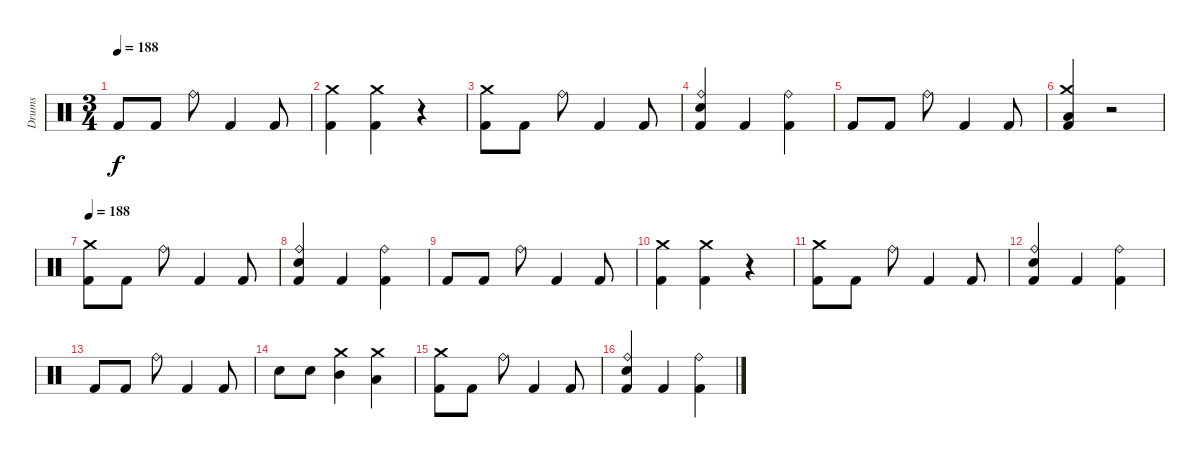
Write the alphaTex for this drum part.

\track ("Drums" "Drums") {instrument percussion}
\staff {score}
\articulation defaults
\ts (3 4)
\tempo 188
\clef neutral
\ks c "Kick (hit) 2".8{dy f} "Kick (hit) 2".8 "Ride (bell)".8 "Kick (hit) 2".4 "Kick (hit) 2".8
|
("Crash medium (hit)" "Kick (hit) 2").4 ("Crash medium (hit)" "Kick (hit) 2").4 r.4 |
("Crash medium (hit)" "Kick (hit) 2").8 "Kick (hit) 2".8 "Ride (bell)".8 "Kick (hit) 2".4 "Kick (hit) 2".8 |
("Electric Snare (hit)" "Ride (bell)" "Kick (hit) 2").4 "Kick (hit) 2".4 ("Ride (bell)" "Kick (hit) 2").4 |
"Kick (hit) 2".8 "Kick (hit) 2".8 "Ride (bell)".8 "Kick (hit) 2".4 "Kick (hit) 2".8 |
("Crash medium (hit)" "Low Tom (hit)" "Kick (hit) 2").4 r.2 |
\tempo 188
("Crash medium (hit)" "Kick (hit) 2").8 "Kick (hit) 2".8 "Ride (bell)".8 "Kick (hit) 2".4 "Kick (hit) 2".8 |
("Electric Snare (hit)" "Ride (bell)" "Kick (hit) 2").4 "Kick (hit) 2".4 ("Ride (bell)" "Kick (hit) 2").4 |
"Kick (hit) 2".8 "Kick (hit) 2".8 "Ride (bell)".8 "Kick (hit) 2".4 "Kick (hit) 2".8 |
("Crash medium (hit)" "Kick (hit) 2").4 ("Crash medium (hit)" "Kick (hit) 2").4 r.4 |
("Crash medium (hit)" "Kick (hit) 2").8 "Kick (hit) 2".8 "Ride (bell)".8 "Kick (hit) 2".4 "Kick (hit) 2".8 |
("Electric Snare (hit)" "Ride (bell)" "Kick (hit) 2").4 "Kick (hit) 2".4 ("Ride (bell)" "Kick (hit) 2").4 |
"Kick (hit) 2".8 "Kick (hit) 2".8 "Ride (bell)".8 "Kick (hit) 2".4 "Kick (hit) 2".8 |
"Electric Snare (hit)".8 "Electric Snare (hit)".8 ("Crash medium (hit)" "Mid Tom (hit)").4 ("Crash medium (hit)" "Low Tom (hit)").4 |
("Crash medium (hit)" "Kick (hit) 2").8 "Kick (hit) 2".8 "Ride (bell)".8 "Kick (hit) 2".4 "Kick (hit) 2".8 |
("Electric Snare (hit)" "Ride (bell)" "Kick (hit) 2").4 "Kick (hit) 2".4 ("Ride (bell)" "Kick (hit) 2").4
